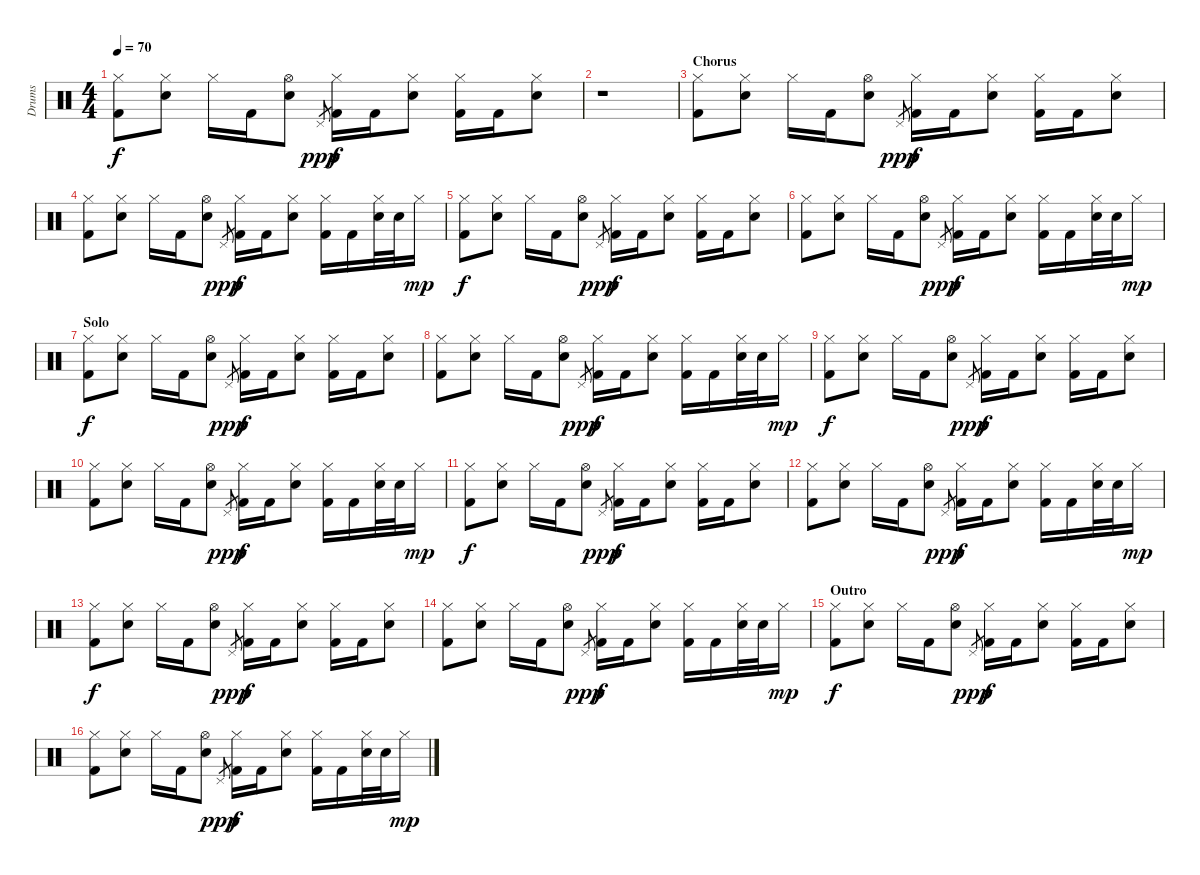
\track ("Drums" "Drums") {instrument percussion}
\staff {score}
\articulation defaults
\ts (4 4)
\tempo 70
\clef neutral
\ks c
("Hi-Hat (closed)" "Kick (hit) 2").8{dy f} ("Hi-Hat (closed)" "Electric Snare (hit)").8 "Hi-Hat (closed)".16 "Kick (hit) 2".16 ("Hi-Hat (open)" "Electric Snare (hit)").8 "Pedal Hi-Hat (hit)".8{gr dy ppp} ("Hi-Hat (closed)" "Kick (hit) 2").16{dy f} "Kick (hit) 2".16 ("Hi-Hat (closed)" "Electric Snare (hit)").8 ("Hi-Hat (closed)" "Kick (hit) 2").16 "Kick (hit) 2".16 ("Hi-Hat (closed)" "Electric Snare (hit)").8 |
r.1 |
\section ("" "Chorus")
("Hi-Hat (closed)" "Kick (hit) 2").8 ("Hi-Hat (closed)" "Electric Snare (hit)").8 "Hi-Hat (closed)".16 "Kick (hit) 2".16 ("Hi-Hat (open)" "Electric Snare (hit)").8 "Pedal Hi-Hat (hit)".8{gr dy ppp} ("Hi-Hat (closed)" "Kick (hit) 2").16{dy f} "Kick (hit) 2".16 ("Hi-Hat (closed)" "Electric Snare (hit)").8 ("Hi-Hat (closed)" "Kick (hit) 2").16 "Kick (hit) 2".16 ("Hi-Hat (closed)" "Electric Snare (hit)").8 |
("Hi-Hat (closed)" "Kick (hit) 2").8 ("Hi-Hat (closed)" "Electric Snare (hit)").8 "Hi-Hat (closed)".16 "Kick (hit) 2".16 ("Hi-Hat (open)" "Electric Snare (hit)").8 "Pedal Hi-Hat (hit)".8{gr dy ppp} ("Hi-Hat (closed)" "Kick (hit) 2").16{dy f} "Kick (hit) 2".16 ("Hi-Hat (closed)" "Electric Snare (hit)").8 ("Hi-Hat (closed)" "Kick (hit) 2").16 "Kick (hit) 2".16 ("Hi-Hat (closed)" "Electric Snare (hit)").32 "Electric Snare (hit)".32 "Hi-Hat (closed)".16{dy mp} |
("Hi-Hat (closed)" "Kick (hit) 2").8{dy f} ("Hi-Hat (closed)" "Electric Snare (hit)").8 "Hi-Hat (closed)".16 "Kick (hit) 2".16 ("Hi-Hat (open)" "Electric Snare (hit)").8 "Pedal Hi-Hat (hit)".8{gr dy ppp} ("Hi-Hat (closed)" "Kick (hit) 2").16{dy f} "Kick (hit) 2".16 ("Hi-Hat (closed)" "Electric Snare (hit)").8 ("Hi-Hat (closed)" "Kick (hit) 2").16 "Kick (hit) 2".16 ("Hi-Hat (closed)" "Electric Snare (hit)").8 |
("Hi-Hat (closed)" "Kick (hit) 2").8 ("Hi-Hat (closed)" "Electric Snare (hit)").8 "Hi-Hat (closed)".16 "Kick (hit) 2".16 ("Hi-Hat (open)" "Electric Snare (hit)").8 "Pedal Hi-Hat (hit)".8{gr dy ppp} ("Hi-Hat (closed)" "Kick (hit) 2").16{dy f} "Kick (hit) 2".16 ("Hi-Hat (closed)" "Electric Snare (hit)").8 ("Hi-Hat (closed)" "Kick (hit) 2").16 "Kick (hit) 2".16 ("Hi-Hat (closed)" "Electric Snare (hit)").32 "Electric Snare (hit)".32 "Hi-Hat (closed)".16{dy mp} |
\section ("" "Solo")
("Hi-Hat (closed)" "Kick (hit) 2").8{dy f} ("Hi-Hat (closed)" "Electric Snare (hit)").8 "Hi-Hat (closed)".16 "Kick (hit) 2".16 ("Hi-Hat (open)" "Electric Snare (hit)").8 "Pedal Hi-Hat (hit)".8{gr dy ppp} ("Hi-Hat (closed)" "Kick (hit) 2").16{dy f} "Kick (hit) 2".16 ("Hi-Hat (closed)" "Electric Snare (hit)").8 ("Hi-Hat (closed)" "Kick (hit) 2").16 "Kick (hit) 2".16 ("Hi-Hat (closed)" "Electric Snare (hit)").8 |
("Hi-Hat (closed)" "Kick (hit) 2").8 ("Hi-Hat (closed)" "Electric Snare (hit)").8 "Hi-Hat (closed)".16 "Kick (hit) 2".16 ("Hi-Hat (open)" "Electric Snare (hit)").8 "Pedal Hi-Hat (hit)".8{gr dy ppp} ("Hi-Hat (closed)" "Kick (hit) 2").16{dy f} "Kick (hit) 2".16 ("Hi-Hat (closed)" "Electric Snare (hit)").8 ("Hi-Hat (closed)" "Kick (hit) 2").16 "Kick (hit) 2".16 ("Hi-Hat (closed)" "Electric Snare (hit)").32 "Electric Snare (hit)".32 "Hi-Hat (closed)".16{dy mp} |
("Hi-Hat (closed)" "Kick (hit) 2").8{dy f} ("Hi-Hat (closed)" "Electric Snare (hit)").8 "Hi-Hat (closed)".16 "Kick (hit) 2".16 ("Hi-Hat (open)" "Electric Snare (hit)").8 "Pedal Hi-Hat (hit)".8{gr dy ppp} ("Hi-Hat (closed)" "Kick (hit) 2").16{dy f} "Kick (hit) 2".16 ("Hi-Hat (closed)" "Electric Snare (hit)").8 ("Hi-Hat (closed)" "Kick (hit) 2").16 "Kick (hit) 2".16 ("Hi-Hat (closed)" "Electric Snare (hit)").8 |
("Hi-Hat (closed)" "Kick (hit) 2").8 ("Hi-Hat (closed)" "Electric Snare (hit)").8 "Hi-Hat (closed)".16 "Kick (hit) 2".16 ("Hi-Hat (open)" "Electric Snare (hit)").8 "Pedal Hi-Hat (hit)".8{gr dy ppp} ("Hi-Hat (closed)" "Kick (hit) 2").16{dy f} "Kick (hit) 2".16 ("Hi-Hat (closed)" "Electric Snare (hit)").8 ("Hi-Hat (closed)" "Kick (hit) 2").16 "Kick (hit) 2".16 ("Hi-Hat (closed)" "Electric Snare (hit)").32 "Electric Snare (hit)".32 "Hi-Hat (closed)".16{dy mp} |
("Hi-Hat (closed)" "Kick (hit) 2").8{dy f} ("Hi-Hat (closed)" "Electric Snare (hit)").8 "Hi-Hat (closed)".16 "Kick (hit) 2".16 ("Hi-Hat (open)" "Electric Snare (hit)").8 "Pedal Hi-Hat (hit)".8{gr dy ppp} ("Hi-Hat (closed)" "Kick (hit) 2").16{dy f} "Kick (hit) 2".16 ("Hi-Hat (closed)" "Electric Snare (hit)").8 ("Hi-Hat (closed)" "Kick (hit) 2").16 "Kick (hit) 2".16 ("Hi-Hat (closed)" "Electric Snare (hit)").8 |
("Hi-Hat (closed)" "Kick (hit) 2").8 ("Hi-Hat (closed)" "Electric Snare (hit)").8 "Hi-Hat (closed)".16 "Kick (hit) 2".16 ("Hi-Hat (open)" "Electric Snare (hit)").8 "Pedal Hi-Hat (hit)".8{gr dy ppp} ("Hi-Hat (closed)" "Kick (hit) 2").16{dy f} "Kick (hit) 2".16 ("Hi-Hat (closed)" "Electric Snare (hit)").8 ("Hi-Hat (closed)" "Kick (hit) 2").16 "Kick (hit) 2".16 ("Hi-Hat (closed)" "Electric Snare (hit)").32 "Electric Snare (hit)".32 "Hi-Hat (closed)".16{dy mp} |
("Hi-Hat (closed)" "Kick (hit) 2").8{dy f} ("Hi-Hat (closed)" "Electric Snare (hit)").8 "Hi-Hat (closed)".16 "Kick (hit) 2".16 ("Hi-Hat (open)" "Electric Snare (hit)").8 "Pedal Hi-Hat (hit)".8{gr dy ppp} ("Hi-Hat (closed)" "Kick (hit) 2").16{dy f} "Kick (hit) 2".16 ("Hi-Hat (closed)" "Electric Snare (hit)").8 ("Hi-Hat (closed)" "Kick (hit) 2").16 "Kick (hit) 2".16 ("Hi-Hat (closed)" "Electric Snare (hit)").8 |
("Hi-Hat (closed)" "Kick (hit) 2").8 ("Hi-Hat (closed)" "Electric Snare (hit)").8 "Hi-Hat (closed)".16 "Kick (hit) 2".16 ("Hi-Hat (open)" "Electric Snare (hit)").8 "Pedal Hi-Hat (hit)".8{gr dy ppp} ("Hi-Hat (closed)" "Kick (hit) 2").16{dy f} "Kick (hit) 2".16 ("Hi-Hat (closed)" "Electric Snare (hit)").8 ("Hi-Hat (closed)" "Kick (hit) 2").16 "Kick (hit) 2".16 ("Hi-Hat (closed)" "Electric Snare (hit)").32 "Electric Snare (hit)".32 "Hi-Hat (closed)".16{dy mp} |
\section ("" "Outro")
("Hi-Hat (closed)" "Kick (hit) 2").8{dy f} ("Hi-Hat (closed)" "Electric Snare (hit)").8 "Hi-Hat (closed)".16 "Kick (hit) 2".16 ("Hi-Hat (open)" "Electric Snare (hit)").8 "Pedal Hi-Hat (hit)".8{gr dy ppp} ("Hi-Hat (closed)" "Kick (hit) 2").16{dy f} "Kick (hit) 2".16 ("Hi-Hat (closed)" "Electric Snare (hit)").8 ("Hi-Hat (closed)" "Kick (hit) 2").16 "Kick (hit) 2".16 ("Hi-Hat (closed)" "Electric Snare (hit)").8 |
("Hi-Hat (closed)" "Kick (hit) 2").8 ("Hi-Hat (closed)" "Electric Snare (hit)").8 "Hi-Hat (closed)".16 "Kick (hit) 2".16 ("Hi-Hat (open)" "Electric Snare (hit)").8 "Pedal Hi-Hat (hit)".8{gr dy ppp} ("Hi-Hat (closed)" "Kick (hit) 2").16{dy f volume 0} "Kick (hit) 2".16 ("Hi-Hat (closed)" "Electric Snare (hit)").8 ("Hi-Hat (closed)" "Kick (hit) 2").16 "Kick (hit) 2".16 ("Hi-Hat (closed)" "Electric Snare (hit)").32 "Electric Snare (hit)".32 "Hi-Hat (closed)".16{dy mp}
